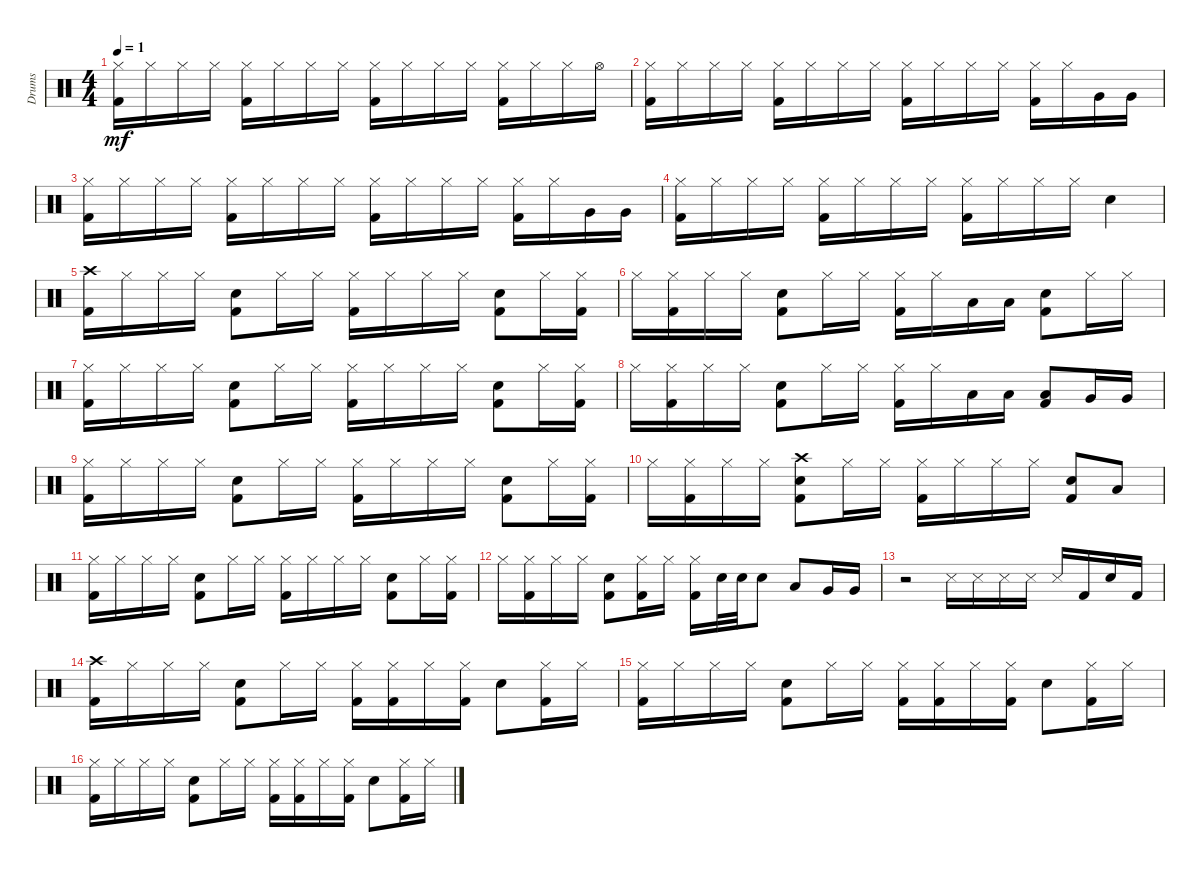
\track ("Drums" "Drums") {instrument percussion}
\staff {score}
\articulation defaults
\ts (4 4)
\tempo 1
\clef neutral
\ks c
("Hi-Hat (closed)" "Kick (hit) 2").16{dy mf} "Hi-Hat (closed)".16 "Hi-Hat (closed)".16 "Hi-Hat (closed)".16 ("Hi-Hat (closed)" "Kick (hit) 2").16 "Hi-Hat (closed)".16 "Hi-Hat (closed)".16 "Hi-Hat (closed)".16 ("Hi-Hat (closed)" "Kick (hit) 2").16 "Hi-Hat (closed)".16 "Hi-Hat (closed)".16 "Hi-Hat (closed)".16 ("Hi-Hat (closed)" "Kick (hit) 2").16 "Hi-Hat (closed)".16 "Hi-Hat (closed)".16 "Hi-Hat (open)".16 |
("Hi-Hat (closed)" "Kick (hit) 2").16 "Hi-Hat (closed)".16 "Hi-Hat (closed)".16 "Hi-Hat (closed)".16 ("Hi-Hat (closed)" "Kick (hit) 2").16 "Hi-Hat (closed)".16 "Hi-Hat (closed)".16 "Hi-Hat (closed)".16 ("Hi-Hat (closed)" "Kick (hit) 2").16 "Hi-Hat (closed)".16 "Hi-Hat (closed)".16 "Hi-Hat (closed)".16 ("Hi-Hat (closed)" "Kick (hit) 2").16 "Hi-Hat (closed)".16 "Very Low Tom (hit)".16 "Very Low Tom (hit)".16 |
("Hi-Hat (closed)" "Kick (hit) 2").16 "Hi-Hat (closed)".16 "Hi-Hat (closed)".16 "Hi-Hat (closed)".16 ("Hi-Hat (closed)" "Kick (hit) 2").16 "Hi-Hat (closed)".16 "Hi-Hat (closed)".16 "Hi-Hat (closed)".16 ("Hi-Hat (closed)" "Kick (hit) 2").16 "Hi-Hat (closed)".16 "Hi-Hat (closed)".16 "Hi-Hat (closed)".16 ("Hi-Hat (closed)" "Kick (hit) 2").16 "Hi-Hat (closed)".16 "Very Low Tom (hit)".16 "Very Low Tom (hit)".16 |
("Hi-Hat (closed)" "Kick (hit) 2").16 "Hi-Hat (closed)".16 "Hi-Hat (closed)".16 "Hi-Hat (closed)".16 ("Hi-Hat (closed)" "Kick (hit) 2").16 "Hi-Hat (closed)".16 "Hi-Hat (closed)".16 "Hi-Hat (closed)".16 ("Hi-Hat (closed)" "Kick (hit) 2").16 "Hi-Hat (closed)".16 "Hi-Hat (closed)".16 "Hi-Hat (closed)".16 "Snare (hit) 2".4 |
("Kick (hit) 2" "Crash high (hit)").16 "Hi-Hat (closed)".16 "Hi-Hat (closed)".16 "Hi-Hat (closed)".16 ("Kick (hit) 2" "Snare (hit) 2").8 "Hi-Hat (closed)".16 "Hi-Hat (closed)".16 ("Hi-Hat (closed)" "Kick (hit) 2").16 "Hi-Hat (closed)".16 "Hi-Hat (closed)".16 "Hi-Hat (closed)".16 ("Kick (hit) 2" "Snare (hit) 2").8 "Hi-Hat (closed)".16 ("Hi-Hat (closed)" "Kick (hit) 2").16 |
"Hi-Hat (closed)".16 ("Hi-Hat (closed)" "Kick (hit) 2").16 "Hi-Hat (closed)".16 "Hi-Hat (closed)".16 ("Kick (hit) 2" "Snare (hit) 2").8 "Hi-Hat (closed)".16 "Hi-Hat (closed)".16 ("Hi-Hat (closed)" "Kick (hit) 2").16 "Hi-Hat (closed)".16 "Low Tom (hit)".16 "Low Tom (hit)".16 ("Kick (hit) 2" "Snare (hit) 2").8 "Hi-Hat (closed)".16 "Hi-Hat (closed)".16 |
("Kick (hit) 2" "Hi-Hat (closed)").16 "Hi-Hat (closed)".16 "Hi-Hat (closed)".16 "Hi-Hat (closed)".16 ("Kick (hit) 2" "Snare (hit) 2").8 "Hi-Hat (closed)".16 "Hi-Hat (closed)".16 ("Hi-Hat (closed)" "Kick (hit) 2").16 "Hi-Hat (closed)".16 "Hi-Hat (closed)".16 "Hi-Hat (closed)".16 ("Kick (hit) 2" "Snare (hit) 2").8 "Hi-Hat (closed)".16 ("Hi-Hat (closed)" "Kick (hit) 2").16 |
"Hi-Hat (closed)".16 ("Hi-Hat (closed)" "Kick (hit) 2").16 "Hi-Hat (closed)".16 "Hi-Hat (closed)".16 ("Kick (hit) 2" "Snare (hit) 2").8 "Hi-Hat (closed)".16 "Hi-Hat (closed)".16 ("Hi-Hat (closed)" "Kick (hit) 2").16 "Hi-Hat (closed)".16 "Low Tom (hit)".16 "Low Tom (hit)".16 ("Kick (hit) 2" "Low Tom (hit)").8 "Very Low Tom (hit)".16 "Very Low Tom (hit)".16 |
("Kick (hit) 2" "Hi-Hat (closed)").16 "Hi-Hat (closed)".16 "Hi-Hat (closed)".16 "Hi-Hat (closed)".16 ("Kick (hit) 2" "Snare (hit) 2").8 "Hi-Hat (closed)".16 "Hi-Hat (closed)".16 ("Hi-Hat (closed)" "Kick (hit) 2").16 "Hi-Hat (closed)".16 "Hi-Hat (closed)".16 "Hi-Hat (closed)".16 ("Kick (hit) 2" "Snare (hit) 2").8 "Hi-Hat (closed)".16 ("Hi-Hat (closed)" "Kick (hit) 2").16 |
"Hi-Hat (closed)".16 ("Hi-Hat (closed)" "Kick (hit) 2").16 "Hi-Hat (closed)".16 "Hi-Hat (closed)".16 ("Kick (hit) 2" "Snare (hit) 2" "Crash high (hit)").8 "Hi-Hat (closed)".16 "Hi-Hat (closed)".16 ("Hi-Hat (closed)" "Kick (hit) 2").16 "Hi-Hat (closed)".16 "Hi-Hat (closed)".16 "Hi-Hat (closed)".16 ("Kick (hit) 2" "Snare (hit) 2").8 "Low Tom (hit)".8 |
("Kick (hit) 2" "Hi-Hat (closed)").16 "Hi-Hat (closed)".16 "Hi-Hat (closed)".16 "Hi-Hat (closed)".16 ("Kick (hit) 2" "Snare (hit) 2").8 "Hi-Hat (closed)".16 "Hi-Hat (closed)".16 ("Hi-Hat (closed)" "Kick (hit) 2").16 "Hi-Hat (closed)".16 "Hi-Hat (closed)".16 "Hi-Hat (closed)".16 ("Kick (hit) 2" "Snare (hit) 2").8 "Hi-Hat (closed)".16 ("Hi-Hat (closed)" "Kick (hit) 2").16 |
"Hi-Hat (closed)".16 ("Hi-Hat (closed)" "Kick (hit) 2").16 "Hi-Hat (closed)".16 "Hi-Hat (closed)".16 ("Kick (hit) 2" "Snare (hit) 2").8 ("Hi-Hat (closed)" "Kick (hit) 2").16 "Hi-Hat (closed)".16 ("Hi-Hat (closed)" "Kick (hit) 2").16 "Snare (hit) 2".32 "Snare (hit) 2".32 "Snare (hit) 2".8 "Low Tom (hit)".8 "Very Low Tom (hit)".16 "Very Low Tom (hit)".16 |
r.2 "Snare (side stick) 3".16 "Snare (side stick) 3".16 "Snare (side stick) 3".16 "Snare (side stick) 3".16 "Snare (side stick) 3".16 "Kick (hit) 2".16 "Snare (hit) 2".16 "Kick (hit) 2".16 |
("Crash high (hit)" "Kick (hit) 2").16 "Hi-Hat (closed)".16 "Hi-Hat (closed)".16 "Hi-Hat (closed)".16 ("Kick (hit) 2" "Snare (hit) 2").8 "Hi-Hat (closed)".16 "Hi-Hat (closed)".16 ("Hi-Hat (closed)" "Kick (hit) 2").16 ("Hi-Hat (closed)" "Kick (hit) 2").16 "Hi-Hat (closed)".16 ("Hi-Hat (closed)" "Kick (hit) 2").16 "Snare (hit) 2".8 ("Hi-Hat (closed)" "Kick (hit) 2").16 "Hi-Hat (closed)".16 |
("Kick (hit) 2" "Hi-Hat (closed)").16 "Hi-Hat (closed)".16 "Hi-Hat (closed)".16 "Hi-Hat (closed)".16 ("Kick (hit) 2" "Snare (hit) 2").8 "Hi-Hat (closed)".16 "Hi-Hat (closed)".16 ("Hi-Hat (closed)" "Kick (hit) 2").16 ("Hi-Hat (closed)" "Kick (hit) 2").16 "Hi-Hat (closed)".16 ("Hi-Hat (closed)" "Kick (hit) 2").16 "Snare (hit) 2".8 ("Hi-Hat (closed)" "Kick (hit) 2").16 "Hi-Hat (closed)".16 |
("Kick (hit) 2" "Hi-Hat (closed)").16 "Hi-Hat (closed)".16 "Hi-Hat (closed)".16 "Hi-Hat (closed)".16 ("Kick (hit) 2" "Snare (hit) 2").8 "Hi-Hat (closed)".16 "Hi-Hat (closed)".16 ("Hi-Hat (closed)" "Kick (hit) 2").16 ("Hi-Hat (closed)" "Kick (hit) 2").16 "Hi-Hat (closed)".16 ("Hi-Hat (closed)" "Kick (hit) 2").16 "Snare (hit) 2".8 ("Hi-Hat (closed)" "Kick (hit) 2").16 "Hi-Hat (closed)".16
